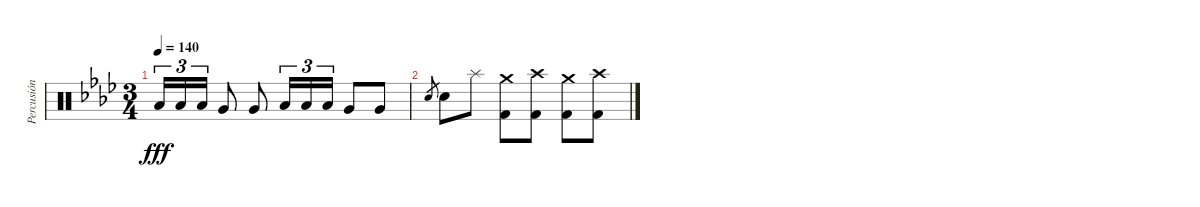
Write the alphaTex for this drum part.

\track ("Percusión" "Percusión") {instrument percussion}
\staff {score}
\articulation defaults
\ts (3 4)
\tempo 140
\clef neutral
\ks fminor "Low Tom (hit)".16{tu (3 2) dy fff} "Low Tom (hit)".16{tu (3 2)} "Low Tom (hit)".16{tu (3 2)} "Very Low Tom (hit)".8 "Very Low Tom (hit)".8 "Low Tom (hit)".16{tu (3 2)} "Low Tom (hit)".16{tu (3 2)} "Low Tom (hit)".16{tu (3 2)} "Very Low Tom (hit)".8 "Very Low Tom (hit)".8
|
"Snare (hit) 2".8{gr} "Snare (hit) 2".8 "Splash (hit)".8 ("Crash medium (hit)" "Kick (hit) 2").8 ("Crash high (hit)" "Kick (hit) 2").8 ("Crash medium (hit)" "Kick (hit) 2").8 ("Crash high (hit)" "Kick (hit) 2").8
